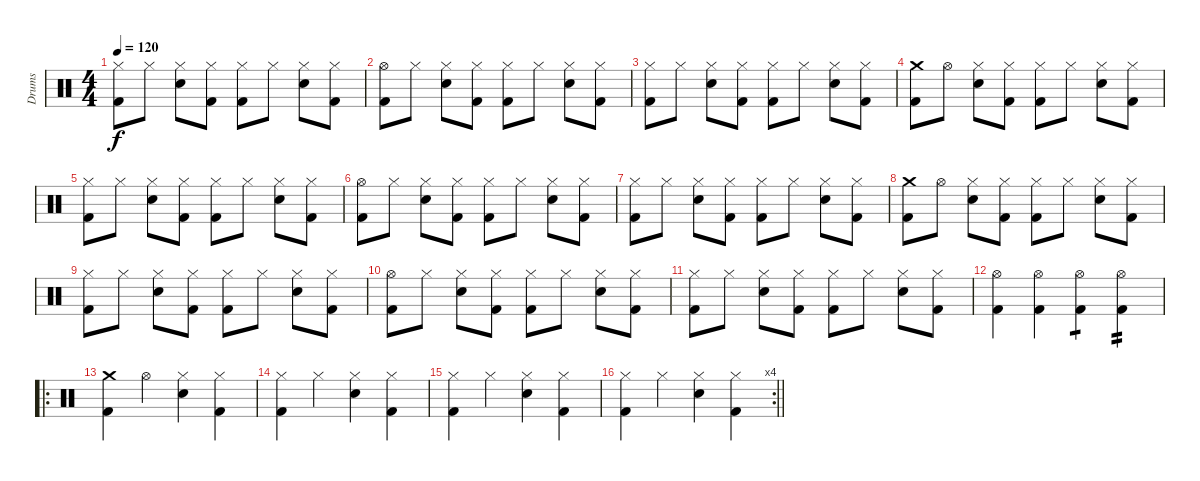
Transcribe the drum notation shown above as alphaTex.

\track ("Drums" "Drums") {instrument percussion}
\staff {score}
\articulation defaults
\ts (4 4)
\tempo 120
\clef neutral
\ks c
("Kick (hit) 2" "Hi-Hat (closed)").8{dy f} "Hi-Hat (closed)".8 ("Snare (hit) 2" "Hi-Hat (closed)").8 ("Kick (hit) 2" "Hi-Hat (closed)").8 ("Kick (hit) 2" "Hi-Hat (closed)").8 "Hi-Hat (closed)".8 ("Snare (hit) 2" "Hi-Hat (closed)").8 ("Kick (hit) 2" "Hi-Hat (closed)").8 |
("Kick (hit) 2" "Hi-Hat (open)").8 "Hi-Hat (closed)".8 ("Snare (hit) 2" "Hi-Hat (closed)").8 ("Kick (hit) 2" "Hi-Hat (closed)").8 ("Kick (hit) 2" "Hi-Hat (closed)").8 "Hi-Hat (closed)".8 ("Snare (hit) 2" "Hi-Hat (closed)").8 ("Kick (hit) 2" "Hi-Hat (closed)").8 |
("Kick (hit) 2" "Hi-Hat (closed)").8 "Hi-Hat (closed)".8 ("Snare (hit) 2" "Hi-Hat (closed)").8 ("Kick (hit) 2" "Hi-Hat (closed)").8 ("Kick (hit) 2" "Hi-Hat (closed)").8 "Hi-Hat (closed)".8 ("Snare (hit) 2" "Hi-Hat (closed)").8 ("Kick (hit) 2" "Hi-Hat (closed)").8 |
("Kick (hit) 2" "Crash medium (hit)").8 "Hi-Hat (open)".8 ("Snare (hit) 2" "Hi-Hat (closed)").8 ("Kick (hit) 2" "Hi-Hat (closed)").8 ("Kick (hit) 2" "Hi-Hat (closed)").8 "Hi-Hat (closed)".8 ("Snare (hit) 2" "Hi-Hat (closed)").8 ("Kick (hit) 2" "Hi-Hat (closed)").8 |
("Kick (hit) 2" "Hi-Hat (closed)").8 "Hi-Hat (closed)".8 ("Snare (hit) 2" "Hi-Hat (closed)").8 ("Kick (hit) 2" "Hi-Hat (closed)").8 ("Kick (hit) 2" "Hi-Hat (closed)").8 "Hi-Hat (closed)".8 ("Snare (hit) 2" "Hi-Hat (closed)").8 ("Kick (hit) 2" "Hi-Hat (closed)").8 |
("Kick (hit) 2" "Hi-Hat (open)").8 "Hi-Hat (closed)".8 ("Snare (hit) 2" "Hi-Hat (closed)").8 ("Kick (hit) 2" "Hi-Hat (closed)").8 ("Kick (hit) 2" "Hi-Hat (closed)").8 "Hi-Hat (closed)".8 ("Snare (hit) 2" "Hi-Hat (closed)").8 ("Kick (hit) 2" "Hi-Hat (closed)").8 |
("Kick (hit) 2" "Hi-Hat (closed)").8 "Hi-Hat (closed)".8 ("Snare (hit) 2" "Hi-Hat (closed)").8 ("Kick (hit) 2" "Hi-Hat (closed)").8 ("Kick (hit) 2" "Hi-Hat (closed)").8 "Hi-Hat (closed)".8 ("Snare (hit) 2" "Hi-Hat (closed)").8 ("Kick (hit) 2" "Hi-Hat (closed)").8 |
("Kick (hit) 2" "Crash medium (hit)").8 "Hi-Hat (open)".8 ("Snare (hit) 2" "Hi-Hat (closed)").8 ("Kick (hit) 2" "Hi-Hat (closed)").8 ("Kick (hit) 2" "Hi-Hat (closed)").8 "Hi-Hat (closed)".8 ("Snare (hit) 2" "Hi-Hat (closed)").8 ("Kick (hit) 2" "Hi-Hat (closed)").8 |
("Kick (hit) 2" "Hi-Hat (closed)").8 "Hi-Hat (closed)".8 ("Snare (hit) 2" "Hi-Hat (closed)").8 ("Kick (hit) 2" "Hi-Hat (closed)").8 ("Kick (hit) 2" "Hi-Hat (closed)").8 "Hi-Hat (closed)".8 ("Snare (hit) 2" "Hi-Hat (closed)").8 ("Kick (hit) 2" "Hi-Hat (closed)").8 |
("Kick (hit) 2" "Hi-Hat (open)").8 "Hi-Hat (closed)".8 ("Snare (hit) 2" "Hi-Hat (closed)").8 ("Kick (hit) 2" "Hi-Hat (closed)").8 ("Kick (hit) 2" "Hi-Hat (closed)").8 "Hi-Hat (closed)".8 ("Snare (hit) 2" "Hi-Hat (closed)").8 ("Kick (hit) 2" "Hi-Hat (closed)").8 |
("Kick (hit) 2" "Hi-Hat (closed)").8 "Hi-Hat (closed)".8 ("Snare (hit) 2" "Hi-Hat (closed)").8 ("Kick (hit) 2" "Hi-Hat (closed)").8 ("Kick (hit) 2" "Hi-Hat (closed)").8 "Hi-Hat (closed)".8 ("Snare (hit) 2" "Hi-Hat (closed)").8 ("Kick (hit) 2" "Hi-Hat (closed)").8 |
("Kick (hit) 2" "Hi-Hat (open)").4 ("Kick (hit) 2" "Hi-Hat (open)").4 ("Kick (hit) 2" "Hi-Hat (open)").4{tp 1} ("Kick (hit) 2" "Hi-Hat (open)").4{tp 2} |
\ro
("Kick (hit) 2" "Crash medium (hit)").4 "Hi-Hat (open)".4 ("Snare (hit) 2" "Hi-Hat (closed)").4 ("Kick (hit) 2" "Hi-Hat (closed)").4 |
("Kick (hit) 2" "Hi-Hat (closed)").4 "Hi-Hat (closed)".4 ("Snare (hit) 2" "Hi-Hat (closed)").4 ("Kick (hit) 2" "Hi-Hat (closed)").4 |
("Kick (hit) 2" "Hi-Hat (closed)").4 "Hi-Hat (closed)".4 ("Snare (hit) 2" "Hi-Hat (closed)").4 ("Kick (hit) 2" "Hi-Hat (closed)").4 |
\rc 4
\barLineRight lightlight
("Kick (hit) 2" "Hi-Hat (closed)").4 "Hi-Hat (closed)".4 ("Snare (hit) 2" "Hi-Hat (closed)").4 ("Kick (hit) 2" "Hi-Hat (closed)").4
